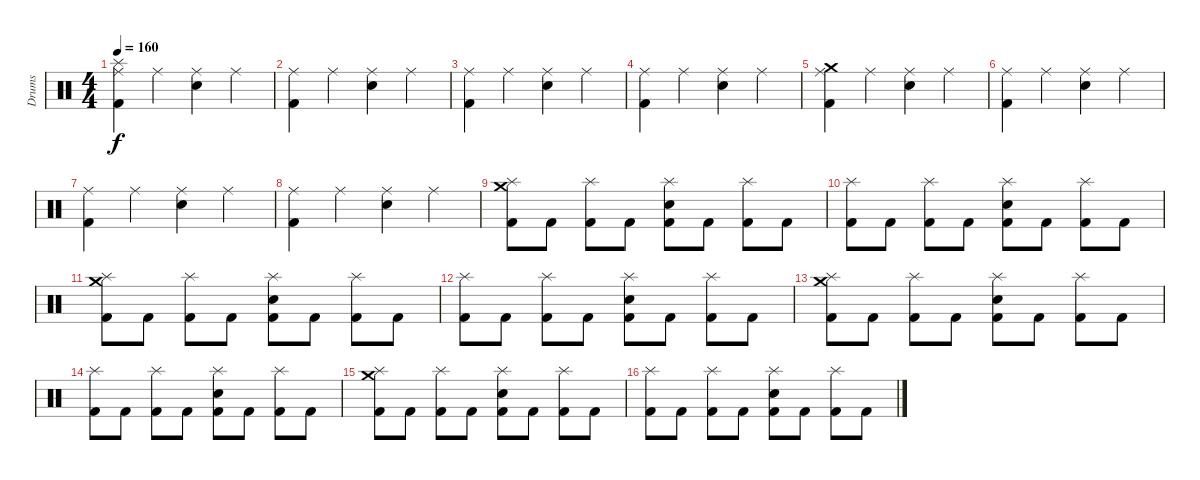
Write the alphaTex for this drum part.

\track ("Drums" "Drums") {instrument percussion}
\staff {score}
\articulation defaults
\ts (4 4)
\tempo 160
\clef neutral
\ks c
("Ride (middle)" "Splash (hit)" "Kick (hit) 2").4{dy f} "Ride (middle)".4 ("Ride (middle)" "Snare (hit) 2").4 "Ride (middle)".4 |
("Ride (middle)" "Kick (hit) 2").4 "Ride (middle)".4 ("Ride (middle)" "Snare (hit) 2").4 "Ride (middle)".4 |
("Ride (middle)" "Kick (hit) 2").4 "Ride (middle)".4 ("Ride (middle)" "Snare (hit) 2").4 "Ride (middle)".4 |
("Ride (middle)" "Kick (hit) 2").4 "Ride (middle)".4 ("Ride (middle)" "Snare (hit) 2").4 "Ride (middle)".4 |
("Ride (middle)" "Crash medium (hit)" "Kick (hit) 2").4 "Ride (middle)".4 ("Ride (middle)" "Snare (hit) 2").4 "Ride (middle)".4 |
("Ride (middle)" "Kick (hit) 2").4 "Ride (middle)".4 ("Ride (middle)" "Snare (hit) 2").4 "Ride (middle)".4 |
("Ride (middle)" "Kick (hit) 2").4 "Ride (middle)".4 ("Ride (middle)" "Snare (hit) 2").4 "Ride (middle)".4 |
("Ride (middle)" "Kick (hit) 2").4 "Ride (middle)".4 ("Ride (middle)" "Snare (hit) 2").4 "Ride (middle)".4 |
("Splash (hit)" "Crash medium (hit)" "Kick (hit) 2").8 "Kick (hit) 2".8 ("Splash (hit)" "Kick (hit) 2").8 "Kick (hit) 2".8 ("Splash (hit)" "Snare (hit) 2" "Kick (hit) 2").8 "Kick (hit) 2".8 ("Splash (hit)" "Kick (hit) 2").8 "Kick (hit) 2".8 |
("Splash (hit)" "Kick (hit) 2").8 "Kick (hit) 2".8 ("Splash (hit)" "Kick (hit) 2").8 "Kick (hit) 2".8 ("Splash (hit)" "Snare (hit) 2" "Kick (hit) 2").8 "Kick (hit) 2".8 ("Splash (hit)" "Kick (hit) 2").8 "Kick (hit) 2".8 |
("Splash (hit)" "Crash medium (hit)" "Kick (hit) 2").8 "Kick (hit) 2".8 ("Splash (hit)" "Kick (hit) 2").8 "Kick (hit) 2".8 ("Splash (hit)" "Snare (hit) 2" "Kick (hit) 2").8 "Kick (hit) 2".8 ("Splash (hit)" "Kick (hit) 2").8 "Kick (hit) 2".8 |
("Splash (hit)" "Kick (hit) 2").8 "Kick (hit) 2".8 ("Splash (hit)" "Kick (hit) 2").8 "Kick (hit) 2".8 ("Splash (hit)" "Snare (hit) 2" "Kick (hit) 2").8 "Kick (hit) 2".8 ("Splash (hit)" "Kick (hit) 2").8 "Kick (hit) 2".8 |
("Splash (hit)" "Crash medium (hit)" "Kick (hit) 2").8 "Kick (hit) 2".8 ("Splash (hit)" "Kick (hit) 2").8 "Kick (hit) 2".8 ("Splash (hit)" "Snare (hit) 2" "Kick (hit) 2").8 "Kick (hit) 2".8 ("Splash (hit)" "Kick (hit) 2").8 "Kick (hit) 2".8 |
("Splash (hit)" "Kick (hit) 2").8 "Kick (hit) 2".8 ("Splash (hit)" "Kick (hit) 2").8 "Kick (hit) 2".8 ("Splash (hit)" "Snare (hit) 2" "Kick (hit) 2").8 "Kick (hit) 2".8 ("Splash (hit)" "Kick (hit) 2").8 "Kick (hit) 2".8 |
("Splash (hit)" "Crash medium (hit)" "Kick (hit) 2").8 "Kick (hit) 2".8 ("Splash (hit)" "Kick (hit) 2").8 "Kick (hit) 2".8 ("Splash (hit)" "Snare (hit) 2" "Kick (hit) 2").8 "Kick (hit) 2".8 ("Splash (hit)" "Kick (hit) 2").8 "Kick (hit) 2".8 |
("Splash (hit)" "Kick (hit) 2").8 "Kick (hit) 2".8 ("Splash (hit)" "Kick (hit) 2").8 "Kick (hit) 2".8 ("Splash (hit)" "Snare (hit) 2" "Kick (hit) 2").8 "Kick (hit) 2".8 ("Splash (hit)" "Kick (hit) 2").8 "Kick (hit) 2".8
